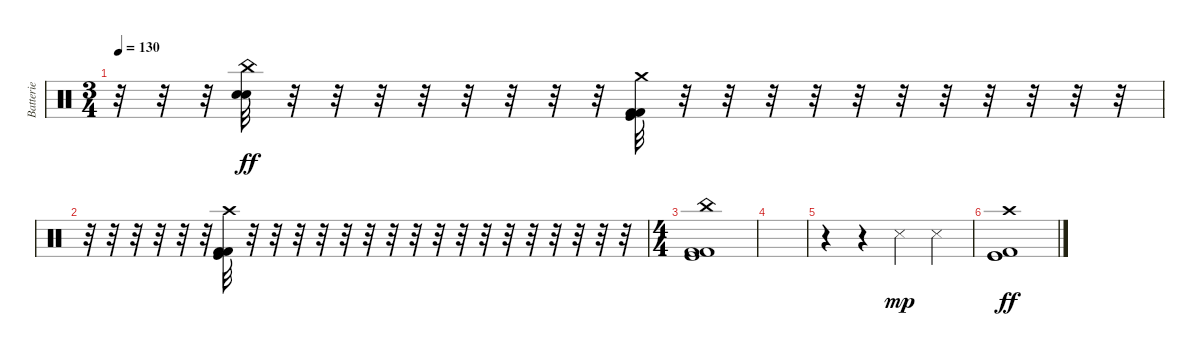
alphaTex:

\track ("Batterie" "Batterie") {instrument percussion}
\staff {score}
\articulation defaults
\ts (3 4)
\tempo 130
\clef neutral
\ks c
r.32{dy ff} r.32 r.32 ("China (hit)" "Electric Snare (hit)" "Electric Snare (hit)").32 r.32 r.32 r.32 r.32 r.32 r.32 r.32 r.32 ("Crash medium (hit)" "Kick (hit) 2" "Kick (hit)" "Kick (hit) 2").32 r.32 r.32 r.32 r.32 r.32 r.32 r.32 r.32 r.32 r.32 r.32 |
r.32 r.32 r.32 r.32 r.32 r.32 ("Crash high (hit)" "Kick (hit) 2" "Kick (hit)" "Kick (hit) 2").32 r.32 r.32 r.32 r.32 r.32 r.32 r.32 r.32 r.32 r.32 r.32 r.32 r.32 r.32 r.32 r.32 r.32 |
\ts (4 4)
("China (hit)" "Kick (hit) 2" "Kick (hit) 2" "Kick (hit)").1 |
|
r.4 r.4 "Snare (side stick) 3".4{dy mp} "Snare (side stick) 3".4 |
("Crash high (hit)" "Kick (hit)" "Kick (hit) 2" "Kick (hit)").1{dy ff}
